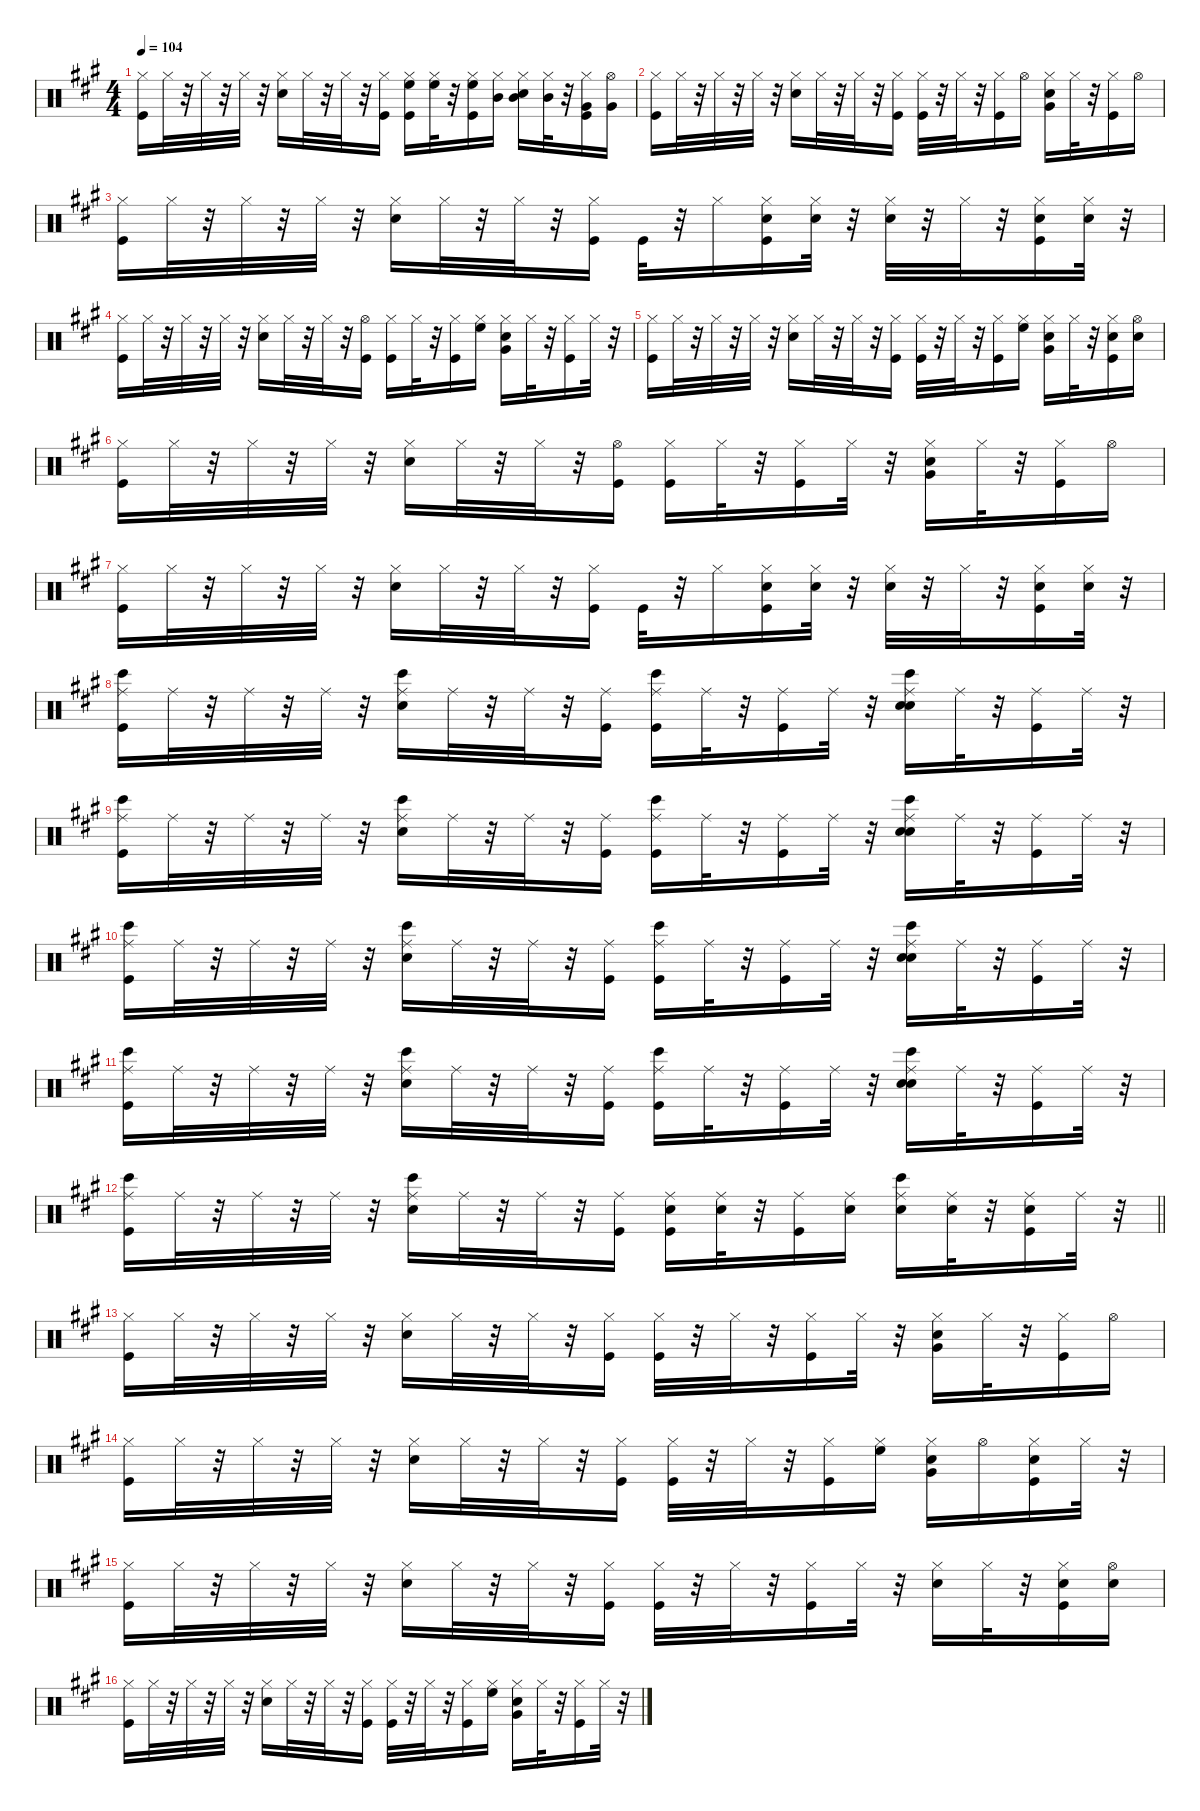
\defaultSystemsLayout 4
\hideDynamics
\bracketExtendMode nobrackets
\singleTrackTrackNamePolicy hidden
\multiTrackTrackNamePolicy hidden
\otherSystemsTrackNameOrientation horizontal
\track ("Drums   " "drm.") {instrument percussion}
\staff {score}
\articulation defaults
\ts (4 4)
\tempo 104
\clef neutral
\ks a
("Kick (hit)"{acc forcenatural} "Hi-Hat (closed)"{acc forcenatural}).16{dy f beam Down} "Hi-Hat (closed)"{acc forcenatural}.32{dy mp beam Down} r.32{beam Down} "Hi-Hat (closed)"{acc forcenatural}.32{dy f beam Down} r.32{beam Down} "Hi-Hat (closed)"{acc forcenatural}.32{beam Down} r.32{beam Down} ("Snare (hit) 2"{acc forcenatural} "Hi-Hat (closed)"{acc forcenatural}).16{dy fff beam Down} "Hi-Hat (closed)"{acc forcenatural}.32{dy mp beam Down} r.32{beam Down} "Hi-Hat (closed)"{acc forcenatural}.32{dy f beam Down} r.32{beam Down} ("Kick (hit)"{acc forcenatural} "Hi-Hat (closed)"{acc forcenatural}).16{dy mf beam Down} ("Kick (hit)"{acc forcenatural} "Hi-Hat (closed)"{acc forcenatural} "High Floor Tom (hit)"{acc forcenatural}).16{dy f beam Down} ("Hi-Hat (closed)"{acc forcenatural} "High Floor Tom (hit)"{acc forcenatural}).32{dy mp beam Down} r.32{beam Down} ("Kick (hit)"{acc forcenatural} "Hi-Hat (closed)"{acc forcenatural} "High Floor Tom (hit)"{acc forcenatural}).16{dy f beam Down} ("Hi-Hat (closed)"{acc forcenatural} "Mid Tom (hit)"{acc forcenatural}).16{beam Down} ("Snare (hit) 2"{acc forcenatural} "Hi-Hat (closed)"{acc forcenatural} "Mid Tom (hit)"{acc forcenatural}).16{dy fff beam Down} ("Hi-Hat (closed)"{acc forcenatural} "Mid Tom (hit)"{acc forcenatural}).32{dy mp beam Down} r.32{beam Down} ("Kick (hit)"{acc forcenatural} "Hi-Hat (closed)"{acc forcenatural} "Very Low Tom (hit)"{acc forcenatural}).16{dy f beam Down} ("Very Low Tom (hit)"{acc forcenatural} "Hi-Hat (open)"{acc forcenatural}).16{beam Down} |
("Kick (hit)"{acc forcenatural} "Hi-Hat (closed)"{acc forcenatural}).16{beam Down} "Hi-Hat (closed)"{acc forcenatural}.32{dy mp beam Down} r.32{beam Down} "Hi-Hat (closed)"{acc forcenatural}.32{dy f beam Down} r.32{beam Down} "Hi-Hat (closed)"{acc forcenatural}.32{beam Down} r.32{beam Down} ("Snare (hit) 2"{acc forcenatural} "Hi-Hat (closed)"{acc forcenatural}).16{dy fff beam Down} "Hi-Hat (closed)"{acc forcenatural}.32{dy mp beam Down} r.32{beam Down} "Hi-Hat (closed)"{acc forcenatural}.32{dy f beam Down} r.32{beam Down} ("Kick (hit)"{acc forcenatural} "Hi-Hat (closed)"{acc forcenatural}).16{dy mf beam Down} ("Kick (hit)"{acc forcenatural} "Hi-Hat (closed)"{acc forcenatural}).32{dy f beam Down} r.32{beam Down} "Hi-Hat (closed)"{acc forcenatural}.32{dy mp beam Down} r.32{beam Down} ("Kick (hit)"{acc forcenatural} "Hi-Hat (closed)"{acc forcenatural}).16{dy f beam Down} "Hi-Hat (open)"{acc forcenatural}.16{beam Down} ("Snare (hit) 2"{acc forcenatural} "Hi-Hat (closed)"{acc forcenatural} "Very Low Tom (hit)"{acc forcenatural}).16{dy fff beam Down} "Hi-Hat (closed)"{acc forcenatural}.32{dy mp beam Down} r.32{beam Down} ("Kick (hit)"{acc forcenatural} "Hi-Hat (closed)"{acc forcenatural}).16{dy f beam Down} "Hi-Hat (open)"{acc forcenatural}.16{beam Down} |
("Kick (hit)"{acc forcenatural} "Hi-Hat (closed)"{acc forcenatural}).16{beam Down} "Hi-Hat (closed)"{acc forcenatural}.32{dy mp beam Down} r.32{beam Down} "Hi-Hat (closed)"{acc forcenatural}.32{dy f beam Down} r.32{beam Down} "Hi-Hat (closed)"{acc forcenatural}.32{beam Down} r.32{beam Down} ("Snare (hit) 2"{acc forcenatural} "Hi-Hat (closed)"{acc forcenatural}).16{dy fff beam Down} "Hi-Hat (closed)"{acc forcenatural}.32{dy mp beam Down} r.32{beam Down} "Hi-Hat (closed)"{acc forcenatural}.32{dy f beam Down} r.32{beam Down} ("Kick (hit)"{acc forcenatural} "Hi-Hat (closed)"{acc forcenatural}).16{dy mf beam Down} "Kick (hit)"{acc forcenatural}.32{dy f beam Down} r.32{beam Down} "Hi-Hat (closed)"{acc forcenatural}.16{dy mp beam Down} ("Kick (hit)"{acc forcenatural} "Snare (hit) 2"{acc forcenatural} "Hi-Hat (closed)"{acc forcenatural}).16{dy f beam Down} ("Snare (hit) 2"{acc forcenatural} "Hi-Hat (closed)"{acc forcenatural}).32{beam Down} r.32{beam Down} ("Snare (hit) 2"{acc forcenatural} "Hi-Hat (closed)"{acc forcenatural}).32{dy fff beam Down} r.32{beam Down} "Hi-Hat (closed)"{acc forcenatural}.32{dy mp beam Down} r.32{beam Down} ("Kick (hit)"{acc forcenatural} "Snare (hit) 2"{acc forcenatural} "Hi-Hat (closed)"{acc forcenatural}).16{dy f beam Down} ("Snare (hit) 2"{acc forcenatural} "Hi-Hat (closed)"{acc forcenatural}).32{dy ff beam Down} r.32{beam Down} |
("Kick (hit)"{acc forcenatural} "Hi-Hat (closed)"{acc forcenatural}).16{dy f beam Down} "Hi-Hat (closed)"{acc forcenatural}.32{dy mp beam Down} r.32{beam Down} "Hi-Hat (closed)"{acc forcenatural}.32{dy f beam Down} r.32{beam Down} "Hi-Hat (closed)"{acc forcenatural}.32{beam Down} r.32{beam Down} ("Snare (hit) 2"{acc forcenatural} "Hi-Hat (closed)"{acc forcenatural}).16{dy fff beam Down} "Hi-Hat (closed)"{acc forcenatural}.32{dy mp beam Down} r.32{beam Down} "Hi-Hat (closed)"{acc forcenatural}.32{dy f beam Down} r.32{beam Down} ("Kick (hit)"{acc forcenatural} "Hi-Hat (open)"{acc forcenatural}).16{dy mf beam Down} ("Kick (hit)"{acc forcenatural} "Hi-Hat (closed)"{acc forcenatural}).16{dy f beam Down} "Hi-Hat (closed)"{acc forcenatural}.32{dy mp beam Down} r.32{beam Down} ("Kick (hit)"{acc forcenatural} "Hi-Hat (closed)"{acc forcenatural}).16{dy f beam Down} ("Hi-Hat (closed)"{acc forcenatural} "High Floor Tom (hit)"{acc forcenatural}).16{beam Down} ("Snare (hit) 2"{acc forcenatural} "Hi-Hat (closed)"{acc forcenatural} "Very Low Tom (hit)"{acc forcenatural}).16{dy fff beam Down} "Hi-Hat (closed)"{acc forcenatural}.32{dy mp beam Down} r.32{beam Down} ("Kick (hit)"{acc forcenatural} "Hi-Hat (closed)"{acc forcenatural}).16{dy f beam Down} "Hi-Hat (closed)"{acc forcenatural}.32{beam Down} r.32{beam Down} |
("Kick (hit)"{acc forcenatural} "Hi-Hat (closed)"{acc forcenatural}).16{beam Down} "Hi-Hat (closed)"{acc forcenatural}.32{dy mp beam Down} r.32{beam Down} "Hi-Hat (closed)"{acc forcenatural}.32{dy f beam Down} r.32{beam Down} "Hi-Hat (closed)"{acc forcenatural}.32{beam Down} r.32{beam Down} ("Snare (hit) 2"{acc forcenatural} "Hi-Hat (closed)"{acc forcenatural}).16{dy fff beam Down} "Hi-Hat (closed)"{acc forcenatural}.32{dy mp beam Down} r.32{beam Down} "Hi-Hat (closed)"{acc forcenatural}.32{dy f beam Down} r.32{beam Down} ("Kick (hit)"{acc forcenatural} "Hi-Hat (closed)"{acc forcenatural}).16{dy mf beam Down} ("Kick (hit)"{acc forcenatural} "Hi-Hat (closed)"{acc forcenatural}).32{dy f beam Down} r.32{beam Down} "Hi-Hat (closed)"{acc forcenatural}.32{dy mp beam Down} r.32{beam Down} ("Kick (hit)"{acc forcenatural} "Hi-Hat (closed)"{acc forcenatural}).16{dy f beam Down} ("Hi-Hat (closed)"{acc forcenatural} "High Floor Tom (hit)"{acc forcenatural}).16{beam Down} ("Snare (hit) 2"{acc forcenatural} "Hi-Hat (closed)"{acc forcenatural} "Very Low Tom (hit)"{acc forcenatural}).16{dy fff beam Down} "Hi-Hat (closed)"{acc forcenatural}.32{dy mp beam Down} r.32{beam Down} ("Kick (hit)"{acc forcenatural} "Snare (hit) 2"{acc forcenatural} "Hi-Hat (closed)"{acc forcenatural}).16{dy f beam Down} ("Snare (hit) 2"{acc forcenatural} "Hi-Hat (open)"{acc forcenatural}).16{beam Down} |
("Kick (hit)"{acc forcenatural} "Hi-Hat (closed)"{acc forcenatural}).16{beam Down} "Hi-Hat (closed)"{acc forcenatural}.32{dy mp beam Down} r.32{beam Down} "Hi-Hat (closed)"{acc forcenatural}.32{dy f beam Down} r.32{beam Down} "Hi-Hat (closed)"{acc forcenatural}.32{beam Down} r.32{beam Down} ("Snare (hit) 2"{acc forcenatural} "Hi-Hat (closed)"{acc forcenatural}).16{dy fff beam Down} "Hi-Hat (closed)"{acc forcenatural}.32{dy mp beam Down} r.32{beam Down} "Hi-Hat (closed)"{acc forcenatural}.32{dy f beam Down} r.32{beam Down} ("Kick (hit)"{acc forcenatural} "Hi-Hat (open)"{acc forcenatural}).16{dy mf beam Down} ("Kick (hit)"{acc forcenatural} "Hi-Hat (closed)"{acc forcenatural}).16{dy f beam Down} "Hi-Hat (closed)"{acc forcenatural}.32{dy mp beam Down} r.32{beam Down} ("Kick (hit)"{acc forcenatural} "Hi-Hat (closed)"{acc forcenatural}).16{dy f beam Down} "Hi-Hat (closed)"{acc forcenatural}.32{beam Down} r.32{beam Down} ("Snare (hit) 2"{acc forcenatural} "Hi-Hat (closed)"{acc forcenatural} "Very Low Tom (hit)"{acc forcenatural}).16{dy fff beam Down} "Hi-Hat (closed)"{acc forcenatural}.32{dy mp beam Down} r.32{beam Down} ("Kick (hit)"{acc forcenatural} "Hi-Hat (closed)"{acc forcenatural}).16{dy f beam Down} "Hi-Hat (open)"{acc forcenatural}.16{beam Down} |
("Kick (hit)"{acc forcenatural} "Hi-Hat (closed)"{acc forcenatural}).16{beam Down} "Hi-Hat (closed)"{acc forcenatural}.32{dy mp beam Down} r.32{beam Down} "Hi-Hat (closed)"{acc forcenatural}.32{dy f beam Down} r.32{beam Down} "Hi-Hat (closed)"{acc forcenatural}.32{beam Down} r.32{beam Down} ("Snare (hit) 2"{acc forcenatural} "Hi-Hat (closed)"{acc forcenatural}).16{dy fff beam Down} "Hi-Hat (closed)"{acc forcenatural}.32{dy mp beam Down} r.32{beam Down} "Hi-Hat (closed)"{acc forcenatural}.32{dy f beam Down} r.32{beam Down} ("Kick (hit)"{acc forcenatural} "Hi-Hat (closed)"{acc forcenatural}).16{dy mf beam Down} "Kick (hit)"{acc forcenatural}.32{dy f beam Down} r.32{beam Down} "Hi-Hat (closed)"{acc forcenatural}.16{dy mp beam Down} ("Kick (hit)"{acc forcenatural} "Snare (hit) 2"{acc forcenatural} "Hi-Hat (closed)"{acc forcenatural}).16{dy f beam Down} ("Snare (hit) 2"{acc forcenatural} "Hi-Hat (closed)"{acc forcenatural}).32{beam Down} r.32{beam Down} ("Snare (hit) 2"{acc forcenatural} "Hi-Hat (closed)"{acc forcenatural}).32{dy fff beam Down} r.32{beam Down} "Hi-Hat (closed)"{acc forcenatural}.32{dy mp beam Down} r.32{beam Down} ("Kick (hit)"{acc forcenatural} "Snare (hit) 2"{acc forcenatural} "Hi-Hat (closed)"{acc forcenatural}).16{dy f beam Down} ("Snare (hit) 2"{acc forcenatural} "Hi-Hat (closed)"{acc forcenatural}).32{dy ff beam Down} r.32{beam Down} |
("Kick (hit)"{acc forcenatural} "Ride (middle)"{acc forcenatural} "Bongo High (hit)"{acc forcenatural}).16{dy f beam Down} "Ride (middle)"{acc forcenatural}.32{dy mp beam Down} r.32{beam Down} "Ride (middle)"{acc forcenatural}.32{beam Down} r.32{beam Down} "Ride (middle)"{acc forcenatural}.32{beam Down} r.32{beam Down} ("Snare (hit) 2"{acc forcenatural} "Ride (middle)"{acc forcenatural} "Bongo High (hit)"{acc forcenatural}).16{dy fff beam Down} "Ride (middle)"{acc forcenatural}.32{dy mp beam Down} r.32{beam Down} "Ride (middle)"{acc forcenatural}.32{beam Down} r.32{beam Down} ("Kick (hit)"{acc forcenatural} "Ride (middle)"{acc forcenatural}).16{dy mf beam Down} ("Kick (hit)"{acc forcenatural} "Ride (middle)"{acc forcenatural} "Bongo High (hit)"{acc forcenatural}).16{dy f beam Down} "Ride (middle)"{acc forcenatural}.32{dy mp beam Down} r.32{beam Down} ("Kick (hit)"{acc forcenatural} "Ride (middle)"{acc forcenatural}).16{dy f beam Down} "Ride (middle)"{acc forcenatural}.32{dy mp beam Down} r.32{beam Down} ("Hand Clap (hit)"{acc forcenatural} "Snare (hit) 2"{acc forcenatural} "Ride (middle)"{acc forcenatural} "Bongo High (hit)"{acc forcenatural}).16{dy f beam Down} "Ride (middle)"{acc forcenatural}.32{dy mp beam Down} r.32{beam Down} ("Kick (hit)"{acc forcenatural} "Ride (middle)"{acc forcenatural}).16{dy f beam Down} "Ride (middle)"{acc forcenatural}.32{dy mp beam Down} r.32{beam Down} |
("Kick (hit)"{acc forcenatural} "Ride (middle)"{acc forcenatural} "Bongo High (hit)"{acc forcenatural}).16{dy f beam Down} "Ride (middle)"{acc forcenatural}.32{dy mp beam Down} r.32{beam Down} "Ride (middle)"{acc forcenatural}.32{beam Down} r.32{beam Down} "Ride (middle)"{acc forcenatural}.32{beam Down} r.32{beam Down} ("Snare (hit) 2"{acc forcenatural} "Ride (middle)"{acc forcenatural} "Bongo High (hit)"{acc forcenatural}).16{dy fff beam Down} "Ride (middle)"{acc forcenatural}.32{dy mp beam Down} r.32{beam Down} "Ride (middle)"{acc forcenatural}.32{beam Down} r.32{beam Down} ("Kick (hit)"{acc forcenatural} "Ride (middle)"{acc forcenatural}).16{dy mf beam Down} ("Kick (hit)"{acc forcenatural} "Ride (middle)"{acc forcenatural} "Bongo High (hit)"{acc forcenatural}).16{dy f beam Down} "Ride (middle)"{acc forcenatural}.32{dy mp beam Down} r.32{beam Down} ("Kick (hit)"{acc forcenatural} "Ride (middle)"{acc forcenatural}).16{dy f beam Down} "Ride (middle)"{acc forcenatural}.32{dy mp beam Down} r.32{beam Down} ("Hand Clap (hit)"{acc forcenatural} "Snare (hit) 2"{acc forcenatural} "Ride (middle)"{acc forcenatural} "Bongo High (hit)"{acc forcenatural}).16{dy f beam Down} "Ride (middle)"{acc forcenatural}.32{dy mp beam Down} r.32{beam Down} ("Kick (hit)"{acc forcenatural} "Ride (middle)"{acc forcenatural}).16{dy f beam Down} "Ride (middle)"{acc forcenatural}.32{dy mp beam Down} r.32{beam Down} |
("Kick (hit)"{acc forcenatural} "Ride (middle)"{acc forcenatural} "Bongo High (hit)"{acc forcenatural}).16{dy f beam Down} "Ride (middle)"{acc forcenatural}.32{dy mp beam Down} r.32{beam Down} "Ride (middle)"{acc forcenatural}.32{beam Down} r.32{beam Down} "Ride (middle)"{acc forcenatural}.32{beam Down} r.32{beam Down} ("Snare (hit) 2"{acc forcenatural} "Ride (middle)"{acc forcenatural} "Bongo High (hit)"{acc forcenatural}).16{dy fff beam Down} "Ride (middle)"{acc forcenatural}.32{dy mp beam Down} r.32{beam Down} "Ride (middle)"{acc forcenatural}.32{beam Down} r.32{beam Down} ("Kick (hit)"{acc forcenatural} "Ride (middle)"{acc forcenatural}).16{dy mf beam Down} ("Kick (hit)"{acc forcenatural} "Ride (middle)"{acc forcenatural} "Bongo High (hit)"{acc forcenatural}).16{dy f beam Down} "Ride (middle)"{acc forcenatural}.32{dy mp beam Down} r.32{beam Down} ("Kick (hit)"{acc forcenatural} "Ride (middle)"{acc forcenatural}).16{dy f beam Down} "Ride (middle)"{acc forcenatural}.32{dy mp beam Down} r.32{beam Down} ("Hand Clap (hit)"{acc forcenatural} "Snare (hit) 2"{acc forcenatural} "Ride (middle)"{acc forcenatural} "Bongo High (hit)"{acc forcenatural}).16{dy f beam Down} "Ride (middle)"{acc forcenatural}.32{dy mp beam Down} r.32{beam Down} ("Kick (hit)"{acc forcenatural} "Ride (middle)"{acc forcenatural}).16{dy f beam Down} "Ride (middle)"{acc forcenatural}.32{dy mp beam Down} r.32{beam Down} |
("Kick (hit)"{acc forcenatural} "Ride (middle)"{acc forcenatural} "Bongo High (hit)"{acc forcenatural}).16{dy f beam Down} "Ride (middle)"{acc forcenatural}.32{dy mp beam Down} r.32{beam Down} "Ride (middle)"{acc forcenatural}.32{beam Down} r.32{beam Down} "Ride (middle)"{acc forcenatural}.32{beam Down} r.32{beam Down} ("Snare (hit) 2"{acc forcenatural} "Ride (middle)"{acc forcenatural} "Bongo High (hit)"{acc forcenatural}).16{dy fff beam Down} "Ride (middle)"{acc forcenatural}.32{dy mp beam Down} r.32{beam Down} "Ride (middle)"{acc forcenatural}.32{beam Down} r.32{beam Down} ("Kick (hit)"{acc forcenatural} "Ride (middle)"{acc forcenatural}).16{dy mf beam Down} ("Kick (hit)"{acc forcenatural} "Ride (middle)"{acc forcenatural} "Bongo High (hit)"{acc forcenatural}).16{dy f beam Down} "Ride (middle)"{acc forcenatural}.32{dy mp beam Down} r.32{beam Down} ("Kick (hit)"{acc forcenatural} "Ride (middle)"{acc forcenatural}).16{dy f beam Down} "Ride (middle)"{acc forcenatural}.32{dy mp beam Down} r.32{beam Down} ("Hand Clap (hit)"{acc forcenatural} "Snare (hit) 2"{acc forcenatural} "Ride (middle)"{acc forcenatural} "Bongo High (hit)"{acc forcenatural}).16{dy f beam Down} "Ride (middle)"{acc forcenatural}.32{dy mp beam Down} r.32{beam Down} ("Kick (hit)"{acc forcenatural} "Ride (middle)"{acc forcenatural}).16{dy f beam Down} "Ride (middle)"{acc forcenatural}.32{dy mp beam Down} r.32{beam Down} |
\barLineRight lightlight
("Kick (hit)"{acc forcenatural} "Ride (middle)"{acc forcenatural} "Bongo High (hit)"{acc forcenatural}).16{dy f beam Down} "Ride (middle)"{acc forcenatural}.32{dy mp beam Down} r.32{beam Down} "Ride (middle)"{acc forcenatural}.32{beam Down} r.32{beam Down} "Ride (middle)"{acc forcenatural}.32{beam Down} r.32{beam Down} ("Snare (hit) 2"{acc forcenatural} "Ride (middle)"{acc forcenatural} "Bongo High (hit)"{acc forcenatural}).16{dy fff beam Down} "Ride (middle)"{acc forcenatural}.32{dy mp beam Down} r.32{beam Down} "Ride (middle)"{acc forcenatural}.32{beam Down} r.32{beam Down} ("Kick (hit)"{acc forcenatural} "Ride (middle)"{acc forcenatural}).16{dy mf beam Down} ("Kick (hit)"{acc forcenatural} "Snare (hit) 2"{acc forcenatural} "Ride (middle)"{acc forcenatural}).16{dy f beam Down} ("Snare (hit) 2"{acc forcenatural} "Ride (middle)"{acc forcenatural}).32{beam Down} r.32{beam Down} ("Kick (hit)"{acc forcenatural} "Ride (middle)"{acc forcenatural}).16{beam Down} ("Snare (hit) 2"{acc forcenatural} "Ride (middle)"{acc forcenatural}).16{beam Down} ("Snare (hit) 2"{acc forcenatural} "Ride (middle)"{acc forcenatural} "Bongo High (hit)"{acc forcenatural}).16{dy fff beam Down} ("Snare (hit) 2"{acc forcenatural} "Ride (middle)"{acc forcenatural}).32{dy f beam Down} r.32{beam Down} ("Kick (hit)"{acc forcenatural} "Snare (hit) 2"{acc forcenatural} "Ride (middle)"{acc forcenatural}).16{beam Down} "Ride (middle)"{acc forcenatural}.32{dy mp beam Down} r.32{beam Down} |
("Kick (hit)"{acc forcenatural} "Hi-Hat (closed)"{acc forcenatural}).16{dy f beam Down} "Hi-Hat (closed)"{acc forcenatural}.32{dy mp beam Down} r.32{beam Down} "Hi-Hat (closed)"{acc forcenatural}.32{dy f beam Down} r.32{beam Down} "Hi-Hat (closed)"{acc forcenatural}.32{beam Down} r.32{beam Down} ("Snare (hit) 2"{acc forcenatural} "Hi-Hat (closed)"{acc forcenatural}).16{dy fff beam Down} "Hi-Hat (closed)"{acc forcenatural}.32{dy mp beam Down} r.32{beam Down} "Hi-Hat (closed)"{acc forcenatural}.32{dy f beam Down} r.32{beam Down} ("Kick (hit)"{acc forcenatural} "Hi-Hat (closed)"{acc forcenatural}).16{dy mf beam Down} ("Kick (hit)"{acc forcenatural} "Hi-Hat (closed)"{acc forcenatural}).32{dy f beam Down} r.32{beam Down} "Hi-Hat (closed)"{acc forcenatural}.32{dy mp beam Down} r.32{beam Down} ("Kick (hit)"{acc forcenatural} "Hi-Hat (closed)"{acc forcenatural}).16{dy f beam Down} "Hi-Hat (closed)"{acc forcenatural}.32{beam Down} r.32{beam Down} ("Snare (hit) 2"{acc forcenatural} "Hi-Hat (closed)"{acc forcenatural} "Very Low Tom (hit)"{acc forcenatural}).16{dy fff beam Down} "Hi-Hat (closed)"{acc forcenatural}.32{dy mp beam Down} r.32{beam Down} ("Kick (hit)"{acc forcenatural} "Hi-Hat (closed)"{acc forcenatural}).16{dy f beam Down} "Hi-Hat (open)"{acc forcenatural}.16{beam Down} |
("Kick (hit)"{acc forcenatural} "Hi-Hat (closed)"{acc forcenatural}).16{beam Down} "Hi-Hat (closed)"{acc forcenatural}.32{dy mp beam Down} r.32{beam Down} "Hi-Hat (closed)"{acc forcenatural}.32{dy f beam Down} r.32{beam Down} "Hi-Hat (closed)"{acc forcenatural}.32{beam Down} r.32{beam Down} ("Snare (hit) 2"{acc forcenatural} "Hi-Hat (closed)"{acc forcenatural}).16{dy fff beam Down} "Hi-Hat (closed)"{acc forcenatural}.32{dy mp beam Down} r.32{beam Down} "Hi-Hat (closed)"{acc forcenatural}.32{dy f beam Down} r.32{beam Down} ("Kick (hit)"{acc forcenatural} "Hi-Hat (closed)"{acc forcenatural}).16{dy mf beam Down} ("Kick (hit)"{acc forcenatural} "Hi-Hat (closed)"{acc forcenatural}).32{dy f beam Down} r.32{beam Down} "Hi-Hat (closed)"{acc forcenatural}.32{dy mp beam Down} r.32{beam Down} ("Kick (hit)"{acc forcenatural} "Hi-Hat (closed)"{acc forcenatural}).16{dy f beam Down} ("Hi-Hat (closed)"{acc forcenatural} "High Floor Tom (hit)"{acc forcenatural}).16{beam Down} ("Snare (hit) 2"{acc forcenatural} "Hi-Hat (closed)"{acc forcenatural} "Very Low Tom (hit)"{acc forcenatural}).16{dy fff beam Down} "Hi-Hat (open)"{acc forcenatural}.16{dy mp beam Down} ("Kick (hit)"{acc forcenatural} "Snare (hit) 2"{acc forcenatural} "Hi-Hat (closed)"{acc forcenatural}).16{dy f beam Down} "Hi-Hat (closed)"{acc forcenatural}.32{beam Down} r.32{beam Down} |
("Kick (hit)"{acc forcenatural} "Hi-Hat (closed)"{acc forcenatural}).16{beam Down} "Hi-Hat (closed)"{acc forcenatural}.32{dy mp beam Down} r.32{beam Down} "Hi-Hat (closed)"{acc forcenatural}.32{dy f beam Down} r.32{beam Down} "Hi-Hat (closed)"{acc forcenatural}.32{beam Down} r.32{beam Down} ("Snare (hit) 2"{acc forcenatural} "Hi-Hat (closed)"{acc forcenatural}).16{dy fff beam Down} "Hi-Hat (closed)"{acc forcenatural}.32{dy mp beam Down} r.32{beam Down} "Hi-Hat (closed)"{acc forcenatural}.32{dy f beam Down} r.32{beam Down} ("Kick (hit)"{acc forcenatural} "Hi-Hat (closed)"{acc forcenatural}).16{dy mf beam Down} ("Kick (hit)"{acc forcenatural} "Hi-Hat (closed)"{acc forcenatural}).32{dy f beam Down} r.32{beam Down} "Hi-Hat (closed)"{acc forcenatural}.32{dy mp beam Down} r.32{beam Down} ("Kick (hit)"{acc forcenatural} "Hi-Hat (closed)"{acc forcenatural}).16{dy f beam Down} "Hi-Hat (closed)"{acc forcenatural}.32{beam Down} r.32{beam Down} ("Snare (hit) 2"{acc forcenatural} "Hi-Hat (closed)"{acc forcenatural}).16{dy fff beam Down} "Hi-Hat (closed)"{acc forcenatural}.32{dy mp beam Down} r.32{beam Down} ("Kick (hit)"{acc forcenatural} "Snare (hit) 2"{acc forcenatural} "Hi-Hat (closed)"{acc forcenatural}).16{dy f beam Down} ("Snare (hit) 2"{acc forcenatural} "Hi-Hat (open)"{acc forcenatural}).16{beam Down} |
("Kick (hit)"{acc forcenatural} "Hi-Hat (closed)"{acc forcenatural}).16{beam Down} "Hi-Hat (closed)"{acc forcenatural}.32{dy mp beam Down} r.32{beam Down} "Hi-Hat (closed)"{acc forcenatural}.32{dy f beam Down} r.32{beam Down} "Hi-Hat (closed)"{acc forcenatural}.32{beam Down} r.32{beam Down} ("Snare (hit) 2"{acc forcenatural} "Hi-Hat (closed)"{acc forcenatural}).16{dy fff beam Down} "Hi-Hat (closed)"{acc forcenatural}.32{dy mp beam Down} r.32{beam Down} "Hi-Hat (closed)"{acc forcenatural}.32{dy f beam Down} r.32{beam Down} ("Kick (hit)"{acc forcenatural} "Hi-Hat (closed)"{acc forcenatural}).16{dy mf beam Down} ("Kick (hit)"{acc forcenatural} "Hi-Hat (closed)"{acc forcenatural}).32{dy f beam Down} r.32{beam Down} "Hi-Hat (closed)"{acc forcenatural}.32{dy mp beam Down} r.32{beam Down} ("Kick (hit)"{acc forcenatural} "Hi-Hat (closed)"{acc forcenatural}).16{dy f beam Down} ("Hi-Hat (closed)"{acc forcenatural} "High Floor Tom (hit)"{acc forcenatural}).16{beam Down} ("Snare (hit) 2"{acc forcenatural} "Hi-Hat (closed)"{acc forcenatural} "Very Low Tom (hit)"{acc forcenatural}).16{dy fff beam Down} "Hi-Hat (closed)"{acc forcenatural}.32{dy mp beam Down} r.32{beam Down} ("Kick (hit)"{acc forcenatural} "Hi-Hat (closed)"{acc forcenatural}).16{dy f beam Down} "Hi-Hat (closed)"{acc forcenatural}.32{beam Down} r.32{beam Down}
